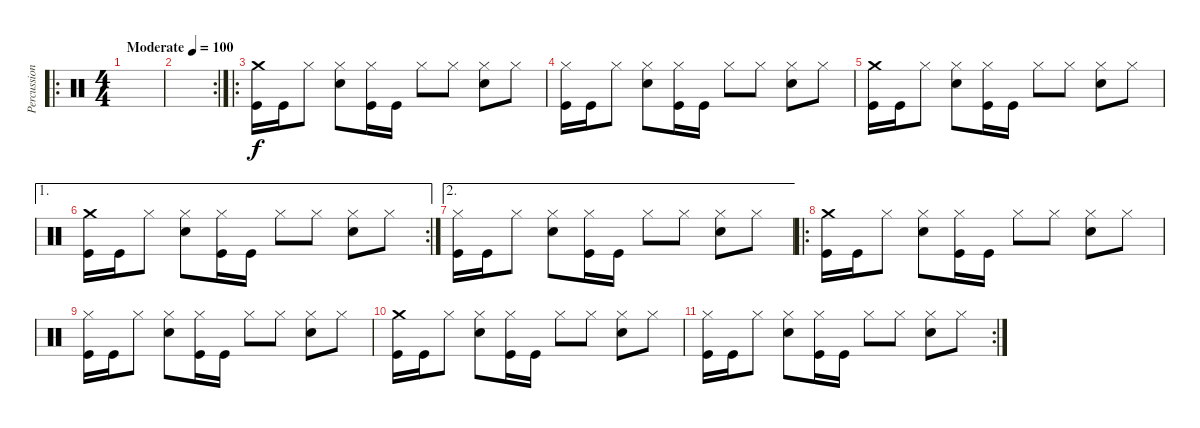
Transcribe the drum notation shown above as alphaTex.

\track ("Percussion" "Percussion") {instrument percussion}
\staff {score}
\articulation defaults
\ro
\ts (4 4)
\tempo (100 "Moderate")
\clef neutral
\ks c
|
\rc 2
|
\ro
("Crash medium (hit)" "Kick (hit)").16 "Kick (hit)".16 "Hi-Hat (closed)".8 ("Hi-Hat (closed)" "Snare (hit) 2").8 ("Hi-Hat (closed)" "Kick (hit)").16 "Kick (hit)".16 "Hi-Hat (closed)".8 "Hi-Hat (closed)".8 ("Hi-Hat (closed)" "Snare (hit) 2").8 "Hi-Hat (closed)".8 |
("Hi-Hat (closed)" "Kick (hit)").16 "Kick (hit)".16 "Hi-Hat (closed)".8 ("Hi-Hat (closed)" "Snare (hit) 2").8 ("Hi-Hat (closed)" "Kick (hit)").16 "Kick (hit)".16 "Hi-Hat (closed)".8 "Hi-Hat (closed)".8 ("Hi-Hat (closed)" "Snare (hit) 2").8 "Hi-Hat (closed)".8 |
("Crash medium (hit)" "Kick (hit)").16 "Kick (hit)".16 "Hi-Hat (closed)".8 ("Hi-Hat (closed)" "Snare (hit) 2").8 ("Hi-Hat (closed)" "Kick (hit)").16 "Kick (hit)".16 "Hi-Hat (closed)".8 "Hi-Hat (closed)".8 ("Hi-Hat (closed)" "Snare (hit) 2").8 "Hi-Hat (closed)".8 |
\ae 1
\rc 2
("Crash medium (hit)" "Kick (hit)").16 "Kick (hit)".16 "Hi-Hat (closed)".8 ("Hi-Hat (closed)" "Snare (hit) 2").8 ("Hi-Hat (closed)" "Kick (hit)").16 "Kick (hit)".16 "Hi-Hat (closed)".8 "Hi-Hat (closed)".8 ("Hi-Hat (closed)" "Snare (hit) 2").8 "Hi-Hat (closed)".8 |
\ae 2
("Hi-Hat (closed)" "Kick (hit)").16 "Kick (hit)".16 "Hi-Hat (closed)".8 ("Hi-Hat (closed)" "Snare (hit) 2").8 ("Hi-Hat (closed)" "Kick (hit)").16 "Kick (hit)".16 "Hi-Hat (closed)".8 "Hi-Hat (closed)".8 ("Hi-Hat (closed)" "Snare (hit) 2").8 "Hi-Hat (closed)".8 |
\ro
("Crash medium (hit)" "Kick (hit)").16 "Kick (hit)".16 "Hi-Hat (closed)".8 ("Hi-Hat (closed)" "Snare (hit) 2").8 ("Hi-Hat (closed)" "Kick (hit)").16 "Kick (hit)".16 "Hi-Hat (closed)".8 "Hi-Hat (closed)".8 ("Hi-Hat (closed)" "Snare (hit) 2").8 "Hi-Hat (closed)".8 |
("Hi-Hat (closed)" "Kick (hit)").16 "Kick (hit)".16 "Hi-Hat (closed)".8 ("Hi-Hat (closed)" "Snare (hit) 2").8 ("Hi-Hat (closed)" "Kick (hit)").16 "Kick (hit)".16 "Hi-Hat (closed)".8 "Hi-Hat (closed)".8 ("Hi-Hat (closed)" "Snare (hit) 2").8 "Hi-Hat (closed)".8 |
("Crash medium (hit)" "Kick (hit)").16 "Kick (hit)".16 "Hi-Hat (closed)".8 ("Hi-Hat (closed)" "Snare (hit) 2").8 ("Hi-Hat (closed)" "Kick (hit)").16 "Kick (hit)".16 "Hi-Hat (closed)".8 "Hi-Hat (closed)".8 ("Hi-Hat (closed)" "Snare (hit) 2").8 "Hi-Hat (closed)".8 |
\rc 2
("Hi-Hat (closed)" "Kick (hit)").16 "Kick (hit)".16 "Hi-Hat (closed)".8 ("Hi-Hat (closed)" "Snare (hit) 2").8 ("Hi-Hat (closed)" "Kick (hit)").16 "Kick (hit)".16 "Hi-Hat (closed)".8 "Hi-Hat (closed)".8 ("Hi-Hat (closed)" "Snare (hit) 2").8 "Hi-Hat (closed)".8
